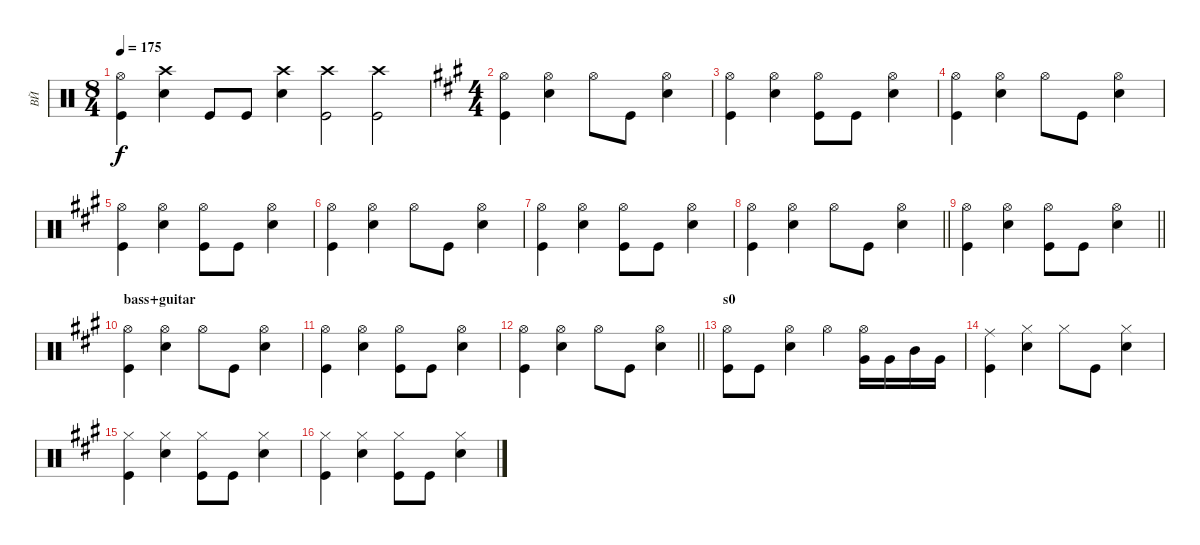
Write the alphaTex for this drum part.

\track ("ВЙ" "ВЙ") {instrument percussion}
\staff {score}
\articulation defaults
\ts (8 4)
\tempo 175
\clef neutral
\ks c
("Hi-Hat (open)" "Kick (hit)").4{dy f} ("Crash high (hit)" "Electric Snare (hit)").4 "Kick (hit)".8 "Kick (hit)".8 ("Crash high (hit)" "Electric Snare (hit)").4 ("Crash high (hit)" "Kick (hit)").2 ("Crash high (hit)" "Kick (hit)").2 |
\ts (4 4)
\ks a
("Hi-Hat (open)" "Kick (hit)").4 ("Hi-Hat (open)" "Electric Snare (hit)").4 "Hi-Hat (open)".8 "Kick (hit)".8 ("Hi-Hat (open)" "Electric Snare (hit)").4 |
("Hi-Hat (open)" "Kick (hit)").4 ("Hi-Hat (open)" "Electric Snare (hit)").4 ("Hi-Hat (open)" "Kick (hit)").8 "Kick (hit)".8 ("Hi-Hat (open)" "Electric Snare (hit)").4 |
("Hi-Hat (open)" "Kick (hit)").4 ("Hi-Hat (open)" "Electric Snare (hit)").4 "Hi-Hat (open)".8 "Kick (hit)".8 ("Hi-Hat (open)" "Electric Snare (hit)").4 |
("Hi-Hat (open)" "Kick (hit)").4 ("Hi-Hat (open)" "Electric Snare (hit)").4 ("Hi-Hat (open)" "Kick (hit)").8 "Kick (hit)".8 ("Hi-Hat (open)" "Electric Snare (hit)").4 |
("Hi-Hat (open)" "Kick (hit)").4 ("Hi-Hat (open)" "Electric Snare (hit)").4 "Hi-Hat (open)".8 "Kick (hit)".8 ("Hi-Hat (open)" "Electric Snare (hit)").4 |
("Hi-Hat (open)" "Kick (hit)").4 ("Hi-Hat (open)" "Electric Snare (hit)").4 ("Hi-Hat (open)" "Kick (hit)").8 "Kick (hit)".8 ("Hi-Hat (open)" "Electric Snare (hit)").4 |
\barLineRight lightlight
("Hi-Hat (open)" "Kick (hit)").4 ("Hi-Hat (open)" "Electric Snare (hit)").4 "Hi-Hat (open)".8 "Kick (hit)".8 ("Hi-Hat (open)" "Electric Snare (hit)").4 |
\barLineRight lightlight
("Hi-Hat (open)" "Kick (hit)").4 ("Hi-Hat (open)" "Electric Snare (hit)").4 ("Hi-Hat (open)" "Kick (hit)").8 "Kick (hit)".8 ("Hi-Hat (open)" "Electric Snare (hit)").4 |
\section ("" "bass+guitar")
("Hi-Hat (open)" "Kick (hit)").4 ("Hi-Hat (open)" "Electric Snare (hit)").4 "Hi-Hat (open)".8 "Kick (hit)".8 ("Hi-Hat (open)" "Electric Snare (hit)").4 |
("Hi-Hat (open)" "Kick (hit)").4 ("Hi-Hat (open)" "Electric Snare (hit)").4 ("Hi-Hat (open)" "Kick (hit)").8 "Kick (hit)".8 ("Hi-Hat (open)" "Electric Snare (hit)").4 |
\barLineRight lightlight
("Hi-Hat (open)" "Kick (hit)").4 ("Hi-Hat (open)" "Electric Snare (hit)").4 "Hi-Hat (open)".8 "Kick (hit)".8 ("Hi-Hat (open)" "Electric Snare (hit)").4 |
\section ("" "s0")
("Hi-Hat (open)" "Kick (hit)").8 "Kick (hit)".8 ("Hi-Hat (open)" "Electric Snare (hit)").4 "Hi-Hat (open)".4 ("Hi-Hat (open)" "Very Low Tom (hit)").16 "Very Low Tom (hit)".16 "Mid Tom (hit)".16 "Very Low Tom (hit)".16 |
("Ride (middle)" "Kick (hit)").4 ("Hi-Hat (closed)" "Electric Snare (hit)").4 "Hi-Hat (closed)".8 "Kick (hit)".8 ("Hi-Hat (closed)" "Electric Snare (hit)").4 |
("Hi-Hat (closed)" "Kick (hit)").4 ("Hi-Hat (closed)" "Electric Snare (hit)").4 ("Hi-Hat (closed)" "Kick (hit)").8 "Kick (hit)".8 ("Hi-Hat (closed)" "Electric Snare (hit)").4 |
("Hi-Hat (closed)" "Kick (hit)").4 ("Hi-Hat (closed)" "Electric Snare (hit)").4 ("Hi-Hat (closed)" "Kick (hit)").8 "Kick (hit)".8 ("Hi-Hat (closed)" "Electric Snare (hit)").4
